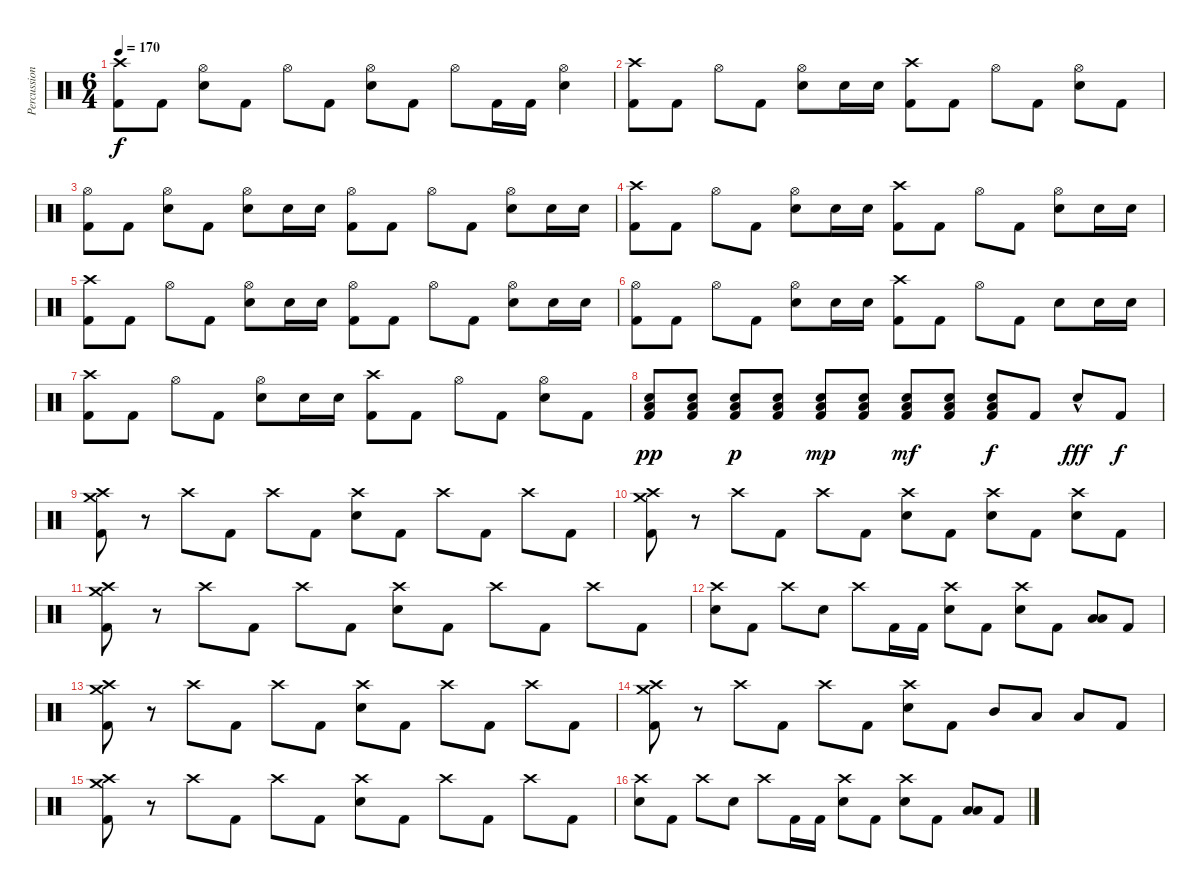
\track ("Percussion" "Percussion") {instrument percussion}
\staff {score}
\articulation defaults
\ts (6 4)
\tempo 170
\clef neutral
\ks c
("Crash high (hit)" "Kick (hit) 2").8{dy f} "Kick (hit) 2".8 ("Hi-Hat (open)" "Electric Snare (hit)").8 "Kick (hit) 2".8 "Hi-Hat (open)".8 "Kick (hit) 2".8 ("Hi-Hat (open)" "Electric Snare (hit)").8 "Kick (hit) 2".8 "Hi-Hat (open)".8 "Kick (hit) 2".16 "Kick (hit) 2".16 ("Hi-Hat (open)" "Electric Snare (hit)").4 |
("Crash high (hit)" "Kick (hit) 2").8 "Kick (hit) 2".8 "Hi-Hat (open)".8 "Kick (hit) 2".8 ("Hi-Hat (open)" "Electric Snare (hit)").8 "Electric Snare (hit)".16 "Electric Snare (hit)".16 ("Crash high (hit)" "Kick (hit) 2").8 "Kick (hit) 2".8 "Hi-Hat (open)".8 "Kick (hit) 2".8 ("Hi-Hat (open)" "Electric Snare (hit)").8 "Kick (hit) 2".8 |
("Hi-Hat (open)" "Kick (hit) 2").8 "Kick (hit) 2".8 ("Hi-Hat (open)" "Electric Snare (hit)").8 "Kick (hit) 2".8 ("Hi-Hat (open)" "Electric Snare (hit)").8 "Electric Snare (hit)".16 "Electric Snare (hit)".16 ("Hi-Hat (open)" "Kick (hit) 2").8 "Kick (hit) 2".8 "Hi-Hat (open)".8 "Kick (hit) 2".8 ("Hi-Hat (open)" "Electric Snare (hit)").8 "Electric Snare (hit)".16 "Electric Snare (hit)".16 |
("Crash high (hit)" "Kick (hit) 2").8 "Kick (hit) 2".8 "Hi-Hat (open)".8 "Kick (hit) 2".8 ("Hi-Hat (open)" "Electric Snare (hit)").8 "Electric Snare (hit)".16 "Electric Snare (hit)".16 ("Crash high (hit)" "Kick (hit) 2").8 "Kick (hit) 2".8 "Hi-Hat (open)".8 "Kick (hit) 2".8 ("Hi-Hat (open)" "Electric Snare (hit)").8 "Electric Snare (hit)".16 "Electric Snare (hit)".16 |
("Crash high (hit)" "Kick (hit) 2").8 "Kick (hit) 2".8 "Hi-Hat (open)".8 "Kick (hit) 2".8 ("Hi-Hat (open)" "Electric Snare (hit)").8 "Electric Snare (hit)".16 "Electric Snare (hit)".16 ("Hi-Hat (open)" "Kick (hit) 2").8 "Kick (hit) 2".8 "Hi-Hat (open)".8 "Kick (hit) 2".8 ("Hi-Hat (open)" "Electric Snare (hit)").8 "Electric Snare (hit)".16 "Electric Snare (hit)".16 |
("Hi-Hat (open)" "Kick (hit) 2").8 "Kick (hit) 2".8 "Hi-Hat (open)".8 "Kick (hit) 2".8 ("Hi-Hat (open)" "Electric Snare (hit)").8 "Electric Snare (hit)".16 "Electric Snare (hit)".16 ("Crash high (hit)" "Kick (hit) 2").8 "Kick (hit) 2".8 "Hi-Hat (open)".8 "Kick (hit) 2".8 "Electric Snare (hit)".8 "Electric Snare (hit)".16 "Electric Snare (hit)".16 |
("Crash high (hit)" "Kick (hit) 2").8 "Kick (hit) 2".8 "Hi-Hat (open)".8 "Kick (hit) 2".8 ("Hi-Hat (open)" "Electric Snare (hit)").8 "Electric Snare (hit)".16 "Electric Snare (hit)".16 ("Crash high (hit)" "Kick (hit) 2").8 "Kick (hit) 2".8 "Hi-Hat (open)".8 "Kick (hit) 2".8 ("Hi-Hat (open)" "Electric Snare (hit)").8 "Kick (hit) 2".8 |
("Low Floor Tom (hit)" "Electric Snare (hit)" "Kick (hit) 2").8{dy pp} ("Low Floor Tom (hit)" "Electric Snare (hit)" "Kick (hit) 2").8 ("Low Floor Tom (hit)" "Electric Snare (hit)" "Kick (hit) 2").8{dy p} ("Low Floor Tom (hit)" "Electric Snare (hit)" "Kick (hit) 2").8 ("Low Floor Tom (hit)" "Electric Snare (hit)" "Kick (hit) 2").8{dy mp} ("Low Floor Tom (hit)" "Electric Snare (hit)" "Kick (hit) 2").8 ("Low Floor Tom (hit)" "Electric Snare (hit)" "Kick (hit) 2").8{dy mf} ("Low Floor Tom (hit)" "Electric Snare (hit)" "Kick (hit) 2").8 ("Low Floor Tom (hit)" "Electric Snare (hit)" "Kick (hit) 2").8{dy f} "Kick (hit) 2".8 "Electric Snare (hit)"{hac}.8{dy fff} "Kick (hit) 2".8{dy f} |
("Crash medium (hit)" "Crash high (hit)" "Kick (hit) 2").8 r.8 "Crash high (hit)".8 "Kick (hit) 2".8 "Crash high (hit)".8 "Kick (hit) 2".8 ("Crash high (hit)" "Electric Snare (hit)").8 "Kick (hit) 2".8 "Crash high (hit)".8 "Kick (hit) 2".8 "Crash high (hit)".8 "Kick (hit) 2".8 |
("Crash medium (hit)" "Crash high (hit)" "Kick (hit) 2").8 r.8 "Crash high (hit)".8 "Kick (hit) 2".8 "Crash high (hit)".8 "Kick (hit) 2".8 ("Crash high (hit)" "Electric Snare (hit)").8 "Kick (hit) 2".8 ("Crash high (hit)" "Electric Snare (hit)").8 "Kick (hit) 2".8 ("Crash high (hit)" "Electric Snare (hit)").8 "Kick (hit) 2".8 |
("Crash medium (hit)" "Crash high (hit)" "Kick (hit) 2").8 r.8 "Crash high (hit)".8 "Kick (hit) 2".8 "Crash high (hit)".8 "Kick (hit) 2".8 ("Crash high (hit)" "Electric Snare (hit)").8 "Kick (hit) 2".8 "Crash high (hit)".8 "Kick (hit) 2".8 "Crash high (hit)".8 "Kick (hit) 2".8 |
("Crash high (hit)" "Electric Snare (hit)").8 "Kick (hit) 2".8 "Crash high (hit)".8 "Electric Snare (hit)".8 "Crash high (hit)".8 "Kick (hit) 2".16 "Kick (hit) 2".16 ("Crash high (hit)" "Electric Snare (hit)").8 "Kick (hit) 2".8 ("Crash high (hit)" "Electric Snare (hit)").8 "Kick (hit) 2".8 ("Low Tom (hit)" "Low Floor Tom (hit)").8 "Kick (hit) 2".8 |
("Crash medium (hit)" "Crash high (hit)" "Kick (hit) 2").8 r.8 "Crash high (hit)".8 "Kick (hit) 2".8 "Crash high (hit)".8 "Kick (hit) 2".8 ("Crash high (hit)" "Electric Snare (hit)").8 "Kick (hit) 2".8 "Crash high (hit)".8 "Kick (hit) 2".8 "Crash high (hit)".8 "Kick (hit) 2".8 |
("Crash medium (hit)" "Crash high (hit)" "Kick (hit) 2").8 r.8 "Crash high (hit)".8 "Kick (hit) 2".8 "Crash high (hit)".8 "Kick (hit) 2".8 ("Crash high (hit)" "Electric Snare (hit)").8 "Kick (hit) 2".8 "Mid Tom (hit)".8 "Low Tom (hit)".8 "Low Floor Tom (hit)".8 "Kick (hit) 2".8 |
("Crash medium (hit)" "Crash high (hit)" "Kick (hit) 2").8 r.8 "Crash high (hit)".8 "Kick (hit) 2".8 "Crash high (hit)".8 "Kick (hit) 2".8 ("Crash high (hit)" "Electric Snare (hit)").8 "Kick (hit) 2".8 "Crash high (hit)".8 "Kick (hit) 2".8 "Crash high (hit)".8 "Kick (hit) 2".8 |
("Crash high (hit)" "Electric Snare (hit)").8 "Kick (hit) 2".8 "Crash high (hit)".8 "Electric Snare (hit)".8 "Crash high (hit)".8 "Kick (hit) 2".16 "Kick (hit) 2".16 ("Crash high (hit)" "Electric Snare (hit)").8 "Kick (hit) 2".8 ("Crash high (hit)" "Electric Snare (hit)").8 "Kick (hit) 2".8 ("Low Tom (hit)" "Low Floor Tom (hit)").8 "Kick (hit) 2".8
